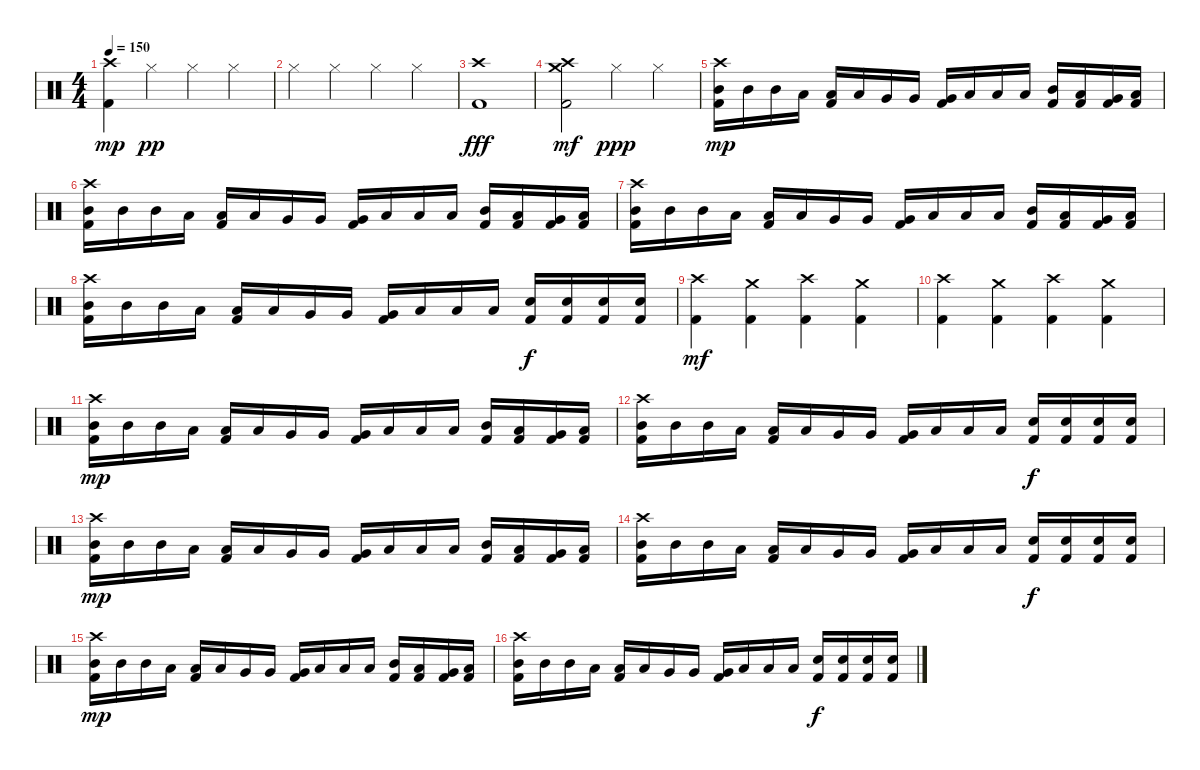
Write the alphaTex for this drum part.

\track "" {instrument percussion}
\staff {score}
\articulation defaults
\ts (4 4)
\tempo 150
\clef neutral
\ks c
("Crash high (hit)" "Kick (hit) 2").4{dy mp} "Hi-Hat (closed)".4{dy pp} "Hi-Hat (closed)".4 "Hi-Hat (closed)".4 |
"Hi-Hat (closed)".4 "Hi-Hat (closed)".4 "Hi-Hat (closed)".4 "Hi-Hat (closed)".4 |
("Crash high (hit)" "Kick (hit) 2").1{dy fff} |
("Crash high (hit)" "Crash medium (hit)" "Kick (hit) 2").2{dy mf} "Hi-Hat (closed)".4{dy ppp} "Hi-Hat (closed)".4 |
("Mid Tom (hit)" "Crash high (hit)" "Kick (hit) 2").16{dy mp} "Mid Tom (hit)".16 "Mid Tom (hit)".16 "Low Tom (hit)".16 ("Low Tom (hit)" "Kick (hit) 2").16 "Low Tom (hit)".16 "Very Low Tom (hit)".16 "Very Low Tom (hit)".16 ("Very Low Tom (hit)" "Kick (hit) 2").16 "Low Floor Tom (hit)".16 "Low Floor Tom (hit)".16 "Low Floor Tom (hit)".16 ("Mid Tom (hit)" "Kick (hit) 2").16 ("Low Tom (hit)" "Kick (hit) 2").16 ("Very Low Tom (hit)" "Kick (hit) 2").16 ("Low Floor Tom (hit)" "Kick (hit) 2").16 |
("Mid Tom (hit)" "Crash high (hit)" "Kick (hit) 2").16 "Mid Tom (hit)".16 "Mid Tom (hit)".16 "Low Tom (hit)".16 ("Low Tom (hit)" "Kick (hit) 2").16 "Low Tom (hit)".16 "Very Low Tom (hit)".16 "Very Low Tom (hit)".16 ("Very Low Tom (hit)" "Kick (hit) 2").16 "Low Floor Tom (hit)".16 "Low Floor Tom (hit)".16 "Low Floor Tom (hit)".16 ("Mid Tom (hit)" "Kick (hit) 2").16 ("Low Tom (hit)" "Kick (hit) 2").16 ("Very Low Tom (hit)" "Kick (hit) 2").16 ("Low Floor Tom (hit)" "Kick (hit) 2").16 |
("Mid Tom (hit)" "Crash high (hit)" "Kick (hit) 2").16 "Mid Tom (hit)".16 "Mid Tom (hit)".16 "Low Tom (hit)".16 ("Low Tom (hit)" "Kick (hit) 2").16 "Low Tom (hit)".16 "Very Low Tom (hit)".16 "Very Low Tom (hit)".16 ("Very Low Tom (hit)" "Kick (hit) 2").16 "Low Floor Tom (hit)".16 "Low Floor Tom (hit)".16 "Low Floor Tom (hit)".16 ("Mid Tom (hit)" "Kick (hit) 2").16 ("Low Tom (hit)" "Kick (hit) 2").16 ("Very Low Tom (hit)" "Kick (hit) 2").16 ("Low Floor Tom (hit)" "Kick (hit) 2").16 |
("Mid Tom (hit)" "Crash high (hit)" "Kick (hit) 2").16 "Mid Tom (hit)".16 "Mid Tom (hit)".16 "Low Tom (hit)".16 ("Low Tom (hit)" "Kick (hit) 2").16 "Low Tom (hit)".16 "Very Low Tom (hit)".16 "Very Low Tom (hit)".16 ("Very Low Tom (hit)" "Kick (hit) 2").16 "Low Floor Tom (hit)".16 "Low Floor Tom (hit)".16 "Low Floor Tom (hit)".16 ("Kick (hit) 2" "Electric Snare (hit)").16{dy f} ("Kick (hit) 2" "Electric Snare (hit)").16 ("Kick (hit) 2" "Electric Snare (hit)").16 ("Kick (hit) 2" "Electric Snare (hit)").16 |
("Kick (hit) 2" "Crash high (hit)").4{dy mf} ("Kick (hit) 2" "Crash medium (hit)").4 ("Kick (hit) 2" "Crash high (hit)").4 ("Kick (hit) 2" "Crash medium (hit)").4 |
("Kick (hit) 2" "Crash high (hit)").4 ("Kick (hit) 2" "Crash medium (hit)").4 ("Kick (hit) 2" "Crash high (hit)").4 ("Kick (hit) 2" "Crash medium (hit)").4 |
("Mid Tom (hit)" "Crash high (hit)" "Kick (hit) 2").16{dy mp} "Mid Tom (hit)".16 "Mid Tom (hit)".16 "Low Tom (hit)".16 ("Low Tom (hit)" "Kick (hit) 2").16 "Low Tom (hit)".16 "Very Low Tom (hit)".16 "Very Low Tom (hit)".16 ("Very Low Tom (hit)" "Kick (hit) 2").16 "Low Floor Tom (hit)".16 "Low Floor Tom (hit)".16 "Low Floor Tom (hit)".16 ("Mid Tom (hit)" "Kick (hit) 2").16 ("Low Tom (hit)" "Kick (hit) 2").16 ("Very Low Tom (hit)" "Kick (hit) 2").16 ("Low Floor Tom (hit)" "Kick (hit) 2").16 |
("Mid Tom (hit)" "Crash high (hit)" "Kick (hit) 2").16 "Mid Tom (hit)".16 "Mid Tom (hit)".16 "Low Tom (hit)".16 ("Low Tom (hit)" "Kick (hit) 2").16 "Low Tom (hit)".16 "Very Low Tom (hit)".16 "Very Low Tom (hit)".16 ("Very Low Tom (hit)" "Kick (hit) 2").16 "Low Floor Tom (hit)".16 "Low Floor Tom (hit)".16 "Low Floor Tom (hit)".16 ("Kick (hit) 2" "Electric Snare (hit)").16{dy f} ("Kick (hit) 2" "Electric Snare (hit)").16 ("Kick (hit) 2" "Electric Snare (hit)").16 ("Kick (hit) 2" "Electric Snare (hit)").16 |
("Mid Tom (hit)" "Crash high (hit)" "Kick (hit) 2").16{dy mp} "Mid Tom (hit)".16 "Mid Tom (hit)".16 "Low Tom (hit)".16 ("Low Tom (hit)" "Kick (hit) 2").16 "Low Tom (hit)".16 "Very Low Tom (hit)".16 "Very Low Tom (hit)".16 ("Very Low Tom (hit)" "Kick (hit) 2").16 "Low Floor Tom (hit)".16 "Low Floor Tom (hit)".16 "Low Floor Tom (hit)".16 ("Mid Tom (hit)" "Kick (hit) 2").16 ("Low Tom (hit)" "Kick (hit) 2").16 ("Very Low Tom (hit)" "Kick (hit) 2").16 ("Low Floor Tom (hit)" "Kick (hit) 2").16 |
("Mid Tom (hit)" "Crash high (hit)" "Kick (hit) 2").16 "Mid Tom (hit)".16 "Mid Tom (hit)".16 "Low Tom (hit)".16 ("Low Tom (hit)" "Kick (hit) 2").16 "Low Tom (hit)".16 "Very Low Tom (hit)".16 "Very Low Tom (hit)".16 ("Very Low Tom (hit)" "Kick (hit) 2").16 "Low Floor Tom (hit)".16 "Low Floor Tom (hit)".16 "Low Floor Tom (hit)".16 ("Kick (hit) 2" "Electric Snare (hit)").16{dy f} ("Kick (hit) 2" "Electric Snare (hit)").16 ("Kick (hit) 2" "Electric Snare (hit)").16 ("Kick (hit) 2" "Electric Snare (hit)").16 |
("Mid Tom (hit)" "Crash high (hit)" "Kick (hit) 2").16{dy mp} "Mid Tom (hit)".16 "Mid Tom (hit)".16 "Low Tom (hit)".16 ("Low Tom (hit)" "Kick (hit) 2").16 "Low Tom (hit)".16 "Very Low Tom (hit)".16 "Very Low Tom (hit)".16 ("Very Low Tom (hit)" "Kick (hit) 2").16 "Low Floor Tom (hit)".16 "Low Floor Tom (hit)".16 "Low Floor Tom (hit)".16 ("Mid Tom (hit)" "Kick (hit) 2").16 ("Low Tom (hit)" "Kick (hit) 2").16 ("Very Low Tom (hit)" "Kick (hit) 2").16 ("Low Floor Tom (hit)" "Kick (hit) 2").16 |
("Mid Tom (hit)" "Crash high (hit)" "Kick (hit) 2").16 "Mid Tom (hit)".16 "Mid Tom (hit)".16 "Low Tom (hit)".16 ("Low Tom (hit)" "Kick (hit) 2").16 "Low Tom (hit)".16 "Very Low Tom (hit)".16 "Very Low Tom (hit)".16 ("Very Low Tom (hit)" "Kick (hit) 2").16 "Low Floor Tom (hit)".16 "Low Floor Tom (hit)".16 "Low Floor Tom (hit)".16 ("Kick (hit) 2" "Electric Snare (hit)").16{dy f} ("Kick (hit) 2" "Electric Snare (hit)").16 ("Kick (hit) 2" "Electric Snare (hit)").16 ("Kick (hit) 2" "Electric Snare (hit)").16
